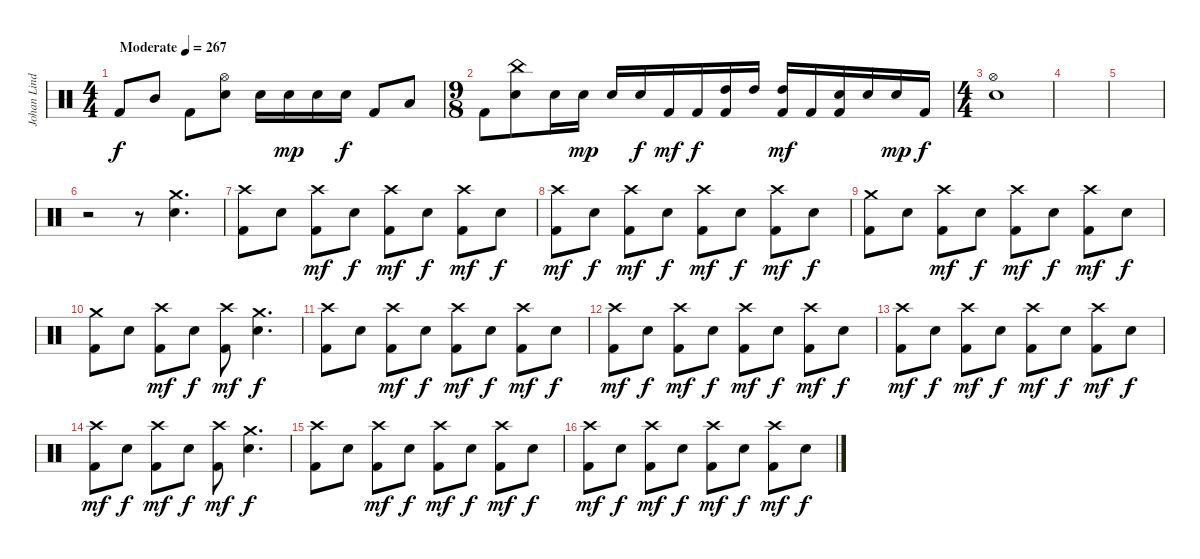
\track ("Johan Lindstrand" "Johan Lind") {instrument percussion}
\staff {score}
\articulation defaults
\ts (4 4)
\tempo (267 "Moderate")
\clef neutral
\ks c "Kick (hit) 2".8{dy f} "Mid Tom (hit)".8 "Kick (hit) 2".8
("Hi-Hat (open)" "Electric Snare (hit)").8 "Electric Snare (hit)".16 "Electric Snare (hit)".16{dy mp} "Electric Snare (hit)".16 "Electric Snare (hit)".16{dy f} "Kick (hit) 2".8 "Low Tom (hit)".8 |
\ts (9 8)
"Kick (hit) 2".8 ("China (hit)" "Electric Snare (hit)").8 "Electric Snare (hit)".16 "Electric Snare (hit)".16{dy mp} "Electric Snare (hit)".16 "Electric Snare (hit)".16{dy f} "Kick (hit) 2".16{dy mf} "Kick (hit) 2".16{dy f} ("High Tom (hit)" "Kick (hit) 2").16 "High Tom (hit)".16 ("High Tom (hit)" "Kick (hit) 2").16{dy mf} "Kick (hit) 2".16 ("Electric Snare (hit)" "Kick (hit) 2").16 "Electric Snare (hit)".16 "Electric Snare (hit)".16{dy mp} "Kick (hit) 2".16{dy f} |
\ts (4 4)
("Hi-Hat (open)" "Electric Snare (hit)").1 |
|
|
r.2 r.8 ("Crash medium (hit)" "Electric Snare (hit)").4{d} |
("Crash high (hit)" "Kick (hit) 2").8 "Electric Snare (hit)".8 ("Crash high (hit)" "Kick (hit) 2").8{dy mf} "Electric Snare (hit)".8{dy f} ("Crash high (hit)" "Kick (hit) 2").8{dy mf} "Electric Snare (hit)".8{dy f} ("Crash high (hit)" "Kick (hit) 2").8{dy mf} "Electric Snare (hit)".8{dy f} |
("Crash high (hit)" "Kick (hit) 2").8{dy mf} "Electric Snare (hit)".8{dy f} ("Crash high (hit)" "Kick (hit) 2").8{dy mf} "Electric Snare (hit)".8{dy f} ("Crash high (hit)" "Kick (hit) 2").8{dy mf} "Electric Snare (hit)".8{dy f} ("Crash high (hit)" "Kick (hit) 2").8{dy mf} "Electric Snare (hit)".8{dy f} |
("Crash medium (hit)" "Kick (hit) 2").8 "Electric Snare (hit)".8 ("Crash high (hit)" "Kick (hit) 2").8{dy mf} "Electric Snare (hit)".8{dy f} ("Crash high (hit)" "Kick (hit) 2").8{dy mf} "Electric Snare (hit)".8{dy f} ("Crash high (hit)" "Kick (hit) 2").8{dy mf} "Electric Snare (hit)".8{dy f} |
("Crash medium (hit)" "Kick (hit) 2").8 "Electric Snare (hit)".8 ("Crash high (hit)" "Kick (hit) 2").8{dy mf} "Electric Snare (hit)".8{dy f} ("Crash high (hit)" "Kick (hit) 2").8{dy mf} ("Crash medium (hit)" "Electric Snare (hit)").4{d dy f} |
("Crash high (hit)" "Kick (hit) 2").8 "Electric Snare (hit)".8 ("Crash high (hit)" "Kick (hit) 2").8{dy mf} "Electric Snare (hit)".8{dy f} ("Crash high (hit)" "Kick (hit) 2").8{dy mf} "Electric Snare (hit)".8{dy f} ("Crash high (hit)" "Kick (hit) 2").8{dy mf} "Electric Snare (hit)".8{dy f} |
("Crash high (hit)" "Kick (hit) 2").8{dy mf} "Electric Snare (hit)".8{dy f} ("Crash high (hit)" "Kick (hit) 2").8{dy mf} "Electric Snare (hit)".8{dy f} ("Crash high (hit)" "Kick (hit) 2").8{dy mf} "Electric Snare (hit)".8{dy f} ("Crash high (hit)" "Kick (hit) 2").8{dy mf} "Electric Snare (hit)".8{dy f} |
("Crash high (hit)" "Kick (hit) 2").8{dy mf} "Electric Snare (hit)".8{dy f} ("Crash high (hit)" "Kick (hit) 2").8{dy mf} "Electric Snare (hit)".8{dy f} ("Crash high (hit)" "Kick (hit) 2").8{dy mf} "Electric Snare (hit)".8{dy f} ("Crash high (hit)" "Kick (hit) 2").8{dy mf} "Electric Snare (hit)".8{dy f} |
("Crash high (hit)" "Kick (hit) 2").8{dy mf} "Electric Snare (hit)".8{dy f} ("Crash high (hit)" "Kick (hit) 2").8{dy mf} "Electric Snare (hit)".8{dy f} ("Crash high (hit)" "Kick (hit) 2").8{dy mf} ("Crash medium (hit)" "Electric Snare (hit)").4{d dy f} |
("Crash high (hit)" "Kick (hit) 2").8 "Electric Snare (hit)".8 ("Crash high (hit)" "Kick (hit) 2").8{dy mf} "Electric Snare (hit)".8{dy f} ("Crash high (hit)" "Kick (hit) 2").8{dy mf} "Electric Snare (hit)".8{dy f} ("Crash high (hit)" "Kick (hit) 2").8{dy mf} "Electric Snare (hit)".8{dy f} |
("Crash high (hit)" "Kick (hit) 2").8{dy mf} "Electric Snare (hit)".8{dy f} ("Crash high (hit)" "Kick (hit) 2").8{dy mf} "Electric Snare (hit)".8{dy f} ("Crash high (hit)" "Kick (hit) 2").8{dy mf} "Electric Snare (hit)".8{dy f} ("Crash high (hit)" "Kick (hit) 2").8{dy mf} "Electric Snare (hit)".8{dy f}
